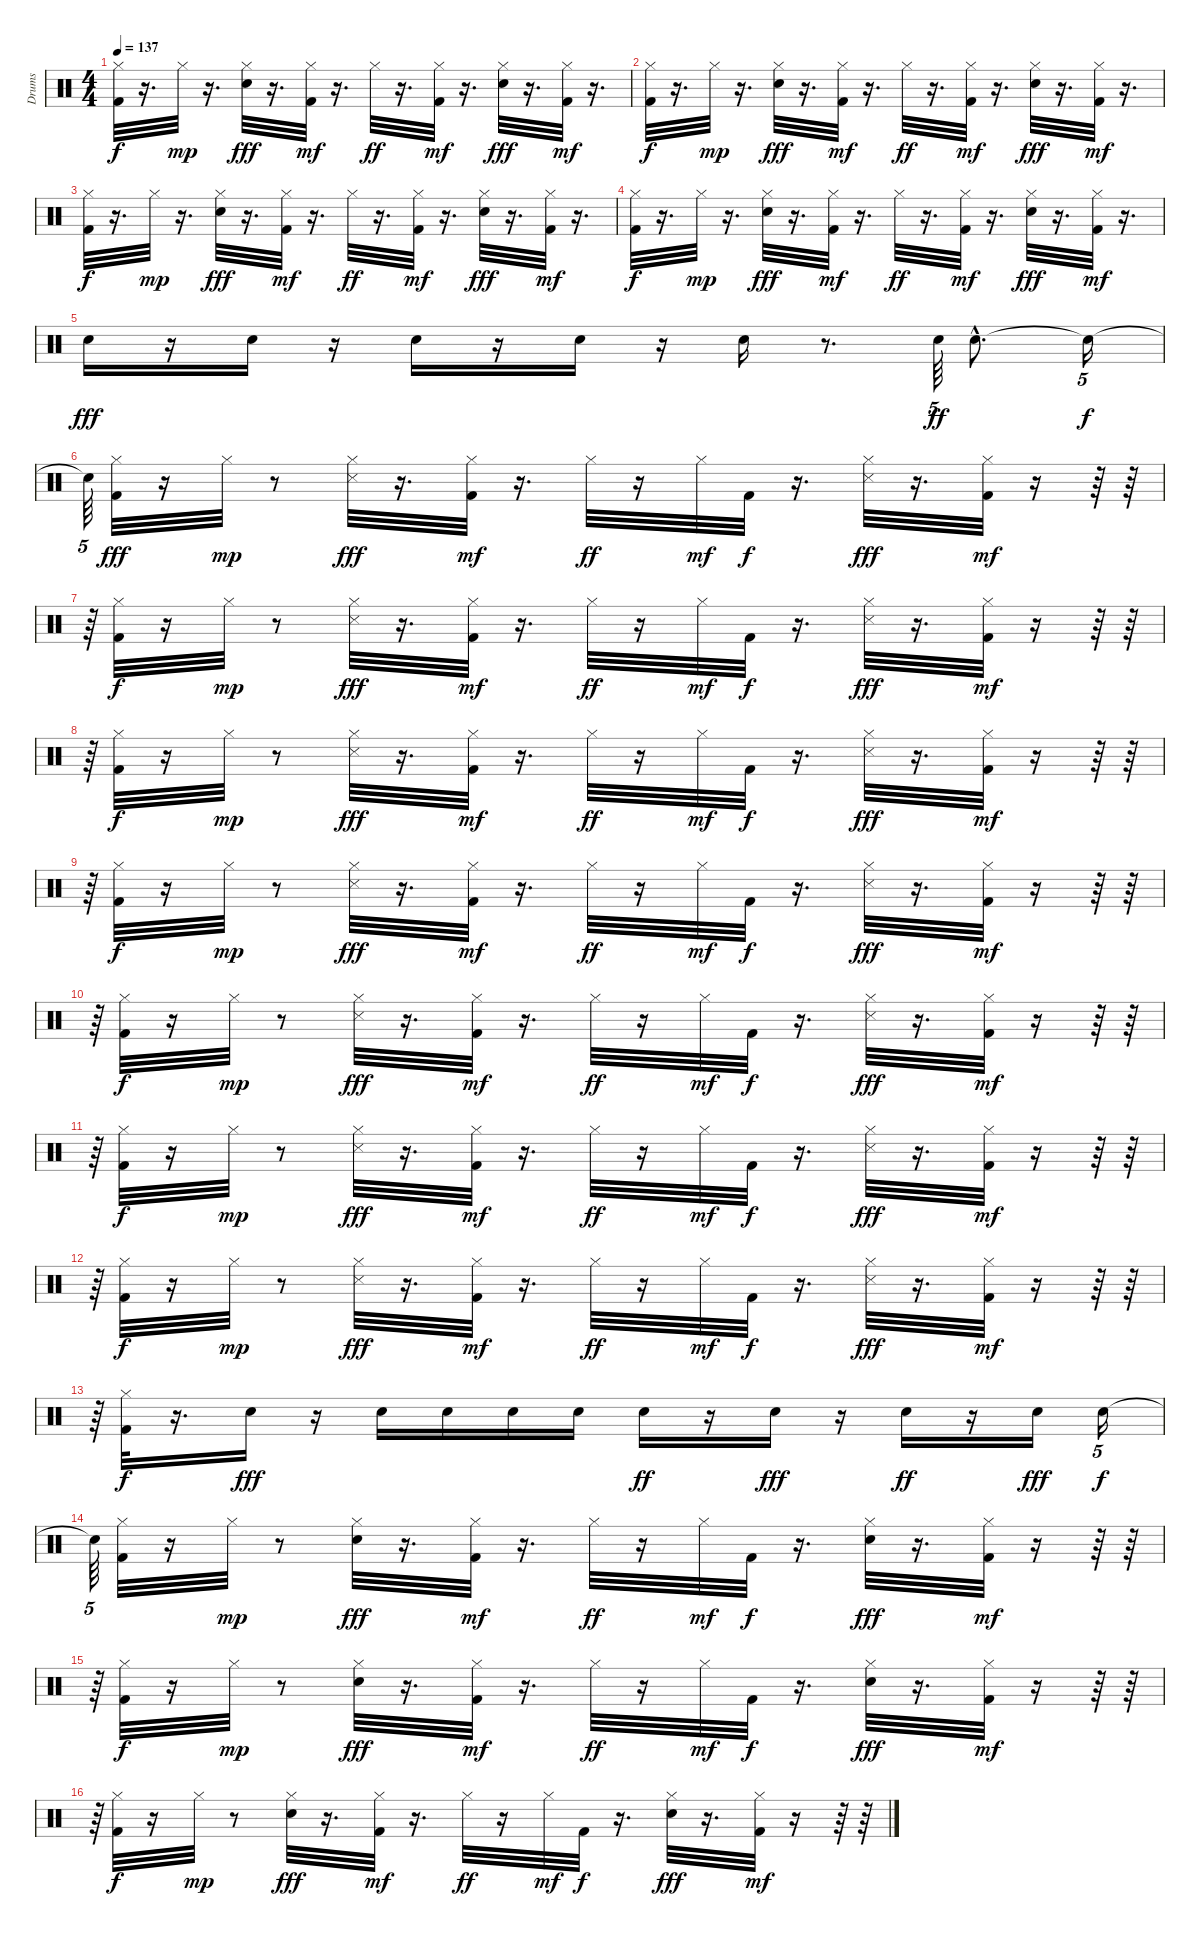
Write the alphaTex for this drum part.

\track ("Drums" "Drums") {instrument percussion}
\staff {score}
\articulation defaults
\ts (4 4)
\tempo 137
\clef neutral
\ks c
("Hi-Hat (closed)" "Kick (hit) 2").32{dy f} r.16{d} "Hi-Hat (closed)".32{dy mp} r.16{d} ("Hi-Hat (closed)" "Snare (hit) 2").32{dy fff} r.16{d} ("Hi-Hat (closed)" "Kick (hit) 2").32{dy mf} r.16{d} "Hi-Hat (closed)".32{dy ff} r.16{d} ("Hi-Hat (closed)" "Kick (hit) 2").32{dy mf} r.16{d} ("Hi-Hat (closed)" "Snare (hit) 2").32{dy fff} r.16{d} ("Hi-Hat (closed)" "Kick (hit) 2").32{dy mf} r.16{d} |
("Hi-Hat (closed)" "Kick (hit) 2").32{dy f} r.16{d} "Hi-Hat (closed)".32{dy mp} r.16{d} ("Hi-Hat (closed)" "Snare (hit) 2").32{dy fff} r.16{d} ("Hi-Hat (closed)" "Kick (hit) 2").32{dy mf} r.16{d} "Hi-Hat (closed)".32{dy ff} r.16{d} ("Hi-Hat (closed)" "Kick (hit) 2").32{dy mf} r.16{d} ("Hi-Hat (closed)" "Snare (hit) 2").32{dy fff} r.16{d} ("Hi-Hat (closed)" "Kick (hit) 2").32{dy mf} r.16{d} |
("Hi-Hat (closed)" "Kick (hit) 2").32{dy f} r.16{d} "Hi-Hat (closed)".32{dy mp} r.16{d} ("Hi-Hat (closed)" "Snare (hit) 2").32{dy fff} r.16{d} ("Hi-Hat (closed)" "Kick (hit) 2").32{dy mf} r.16{d} "Hi-Hat (closed)".32{dy ff} r.16{d} ("Hi-Hat (closed)" "Kick (hit) 2").32{dy mf} r.16{d} ("Hi-Hat (closed)" "Snare (hit) 2").32{dy fff} r.16{d} ("Hi-Hat (closed)" "Kick (hit) 2").32{dy mf} r.16{d} |
("Hi-Hat (closed)" "Kick (hit) 2").32{dy f} r.16{d} "Hi-Hat (closed)".32{dy mp} r.16{d} ("Hi-Hat (closed)" "Snare (hit) 2").32{dy fff} r.16{d} ("Hi-Hat (closed)" "Kick (hit) 2").32{dy mf} r.16{d} "Hi-Hat (closed)".32{dy ff} r.16{d} ("Hi-Hat (closed)" "Kick (hit) 2").32{dy mf} r.16{d} ("Hi-Hat (closed)" "Snare (hit) 2").32{dy fff} r.16{d} ("Hi-Hat (closed)" "Kick (hit) 2").32{dy mf} r.16{d} |
"Snare (hit) 2".16{dy fff} r.16 "Snare (hit) 2".16 r.16 "Snare (hit) 2".16 r.16 "Snare (hit) 2".16 r.16 "Snare (hit) 2".16 r.8{d} "Snare (hit) 2".64{tu (5 4) dy ff} "Electric Snare (hit)"{hac}.8{d} "Snare (hit)"{t}.16{tu (5 4) dy f} |
"Snare (hit)"{t}.64{tu (5 4)} ("Hi-Hat (closed)" "Kick (hit) 2").32{dy fff} r.16 "Hi-Hat (closed)".32{dy mp} r.8 ("Hi-Hat (closed)" "Snare (side stick) 3").32{dy fff} r.16{d} ("Hi-Hat (closed)" "Kick (hit) 2").32{dy mf} r.16{d} "Hi-Hat (closed)".32{dy ff} r.16 "Hi-Hat (closed)".32{dy mf} "Kick (hit) 2".32{dy f} r.16{d} ("Hi-Hat (closed)" "Snare (side stick) 3").32{dy fff} r.16{d} ("Hi-Hat (closed)" "Kick (hit) 2").32{dy mf} r.16 r.64 r.64 |
r.64{tu (5 4)} ("Hi-Hat (closed)" "Kick (hit) 2").32{dy f} r.16 "Hi-Hat (closed)".32{dy mp} r.8 ("Hi-Hat (closed)" "Snare (side stick) 3").32{dy fff} r.16{d} ("Hi-Hat (closed)" "Kick (hit) 2").32{dy mf} r.16{d} "Hi-Hat (closed)".32{dy ff} r.16 "Hi-Hat (closed)".32{dy mf} "Kick (hit) 2".32{dy f} r.16{d} ("Hi-Hat (closed)" "Snare (side stick) 3").32{dy fff} r.16{d} ("Hi-Hat (closed)" "Kick (hit) 2").32{dy mf} r.16 r.64 r.64 |
r.64{tu (5 4)} ("Hi-Hat (closed)" "Kick (hit) 2").32{dy f} r.16 "Hi-Hat (closed)".32{dy mp} r.8 ("Hi-Hat (closed)" "Snare (side stick) 3").32{dy fff} r.16{d} ("Hi-Hat (closed)" "Kick (hit) 2").32{dy mf} r.16{d} "Hi-Hat (closed)".32{dy ff} r.16 "Hi-Hat (closed)".32{dy mf} "Kick (hit) 2".32{dy f} r.16{d} ("Hi-Hat (closed)" "Snare (side stick) 3").32{dy fff} r.16{d} ("Hi-Hat (closed)" "Kick (hit) 2").32{dy mf} r.16 r.64 r.64 |
r.64{tu (5 4)} ("Hi-Hat (closed)" "Kick (hit) 2").32{dy f} r.16 "Hi-Hat (closed)".32{dy mp} r.8 ("Hi-Hat (closed)" "Snare (side stick) 3").32{dy fff} r.16{d} ("Hi-Hat (closed)" "Kick (hit) 2").32{dy mf} r.16{d} "Hi-Hat (closed)".32{dy ff} r.16 "Hi-Hat (closed)".32{dy mf} "Kick (hit) 2".32{dy f} r.16{d} ("Hi-Hat (closed)" "Snare (side stick) 3").32{dy fff} r.16{d} ("Hi-Hat (closed)" "Kick (hit) 2").32{dy mf} r.16 r.64 r.64 |
r.64{tu (5 4)} ("Hi-Hat (closed)" "Kick (hit) 2").32{dy f} r.16 "Hi-Hat (closed)".32{dy mp} r.8 ("Hi-Hat (closed)" "Snare (side stick) 3").32{dy fff} r.16{d} ("Hi-Hat (closed)" "Kick (hit) 2").32{dy mf} r.16{d} "Hi-Hat (closed)".32{dy ff} r.16 "Hi-Hat (closed)".32{dy mf} "Kick (hit) 2".32{dy f} r.16{d} ("Hi-Hat (closed)" "Snare (side stick) 3").32{dy fff} r.16{d} ("Hi-Hat (closed)" "Kick (hit) 2").32{dy mf} r.16 r.64 r.64 |
r.64{tu (5 4)} ("Hi-Hat (closed)" "Kick (hit) 2").32{dy f} r.16 "Hi-Hat (closed)".32{dy mp} r.8 ("Hi-Hat (closed)" "Snare (side stick) 3").32{dy fff} r.16{d} ("Hi-Hat (closed)" "Kick (hit) 2").32{dy mf} r.16{d} "Hi-Hat (closed)".32{dy ff} r.16 "Hi-Hat (closed)".32{dy mf} "Kick (hit) 2".32{dy f} r.16{d} ("Hi-Hat (closed)" "Snare (side stick) 3").32{dy fff} r.16{d} ("Hi-Hat (closed)" "Kick (hit) 2").32{dy mf} r.16 r.64 r.64 |
r.64{tu (5 4)} ("Hi-Hat (closed)" "Kick (hit) 2").32{dy f} r.16 "Hi-Hat (closed)".32{dy mp} r.8 ("Hi-Hat (closed)" "Snare (side stick) 3").32{dy fff} r.16{d} ("Hi-Hat (closed)" "Kick (hit) 2").32{dy mf} r.16{d} "Hi-Hat (closed)".32{dy ff} r.16 "Hi-Hat (closed)".32{dy mf} "Kick (hit) 2".32{dy f} r.16{d} ("Hi-Hat (closed)" "Snare (side stick) 3").32{dy fff} r.16{d} ("Hi-Hat (closed)" "Kick (hit) 2").32{dy mf} r.16 r.64 r.64 |
r.64{tu (5 4)} ("Hi-Hat (closed)" "Kick (hit) 2").32{dy f} r.16{d} "Snare (hit) 2".16{dy fff} r.16 "Snare (hit) 2".16 "Snare (hit) 2".16 "Snare (hit) 2".16 "Snare (hit) 2".16 "Electric Snare (hit)".16{dy ff} r.16 "Electric Snare (hit)".16{dy fff} r.16 "Snare (hit) 2".16{dy ff} r.16 "Snare (hit) 2".16{dy fff} "Electric Snare (hit)".16{tu (5 4) dy f} |
"Snare (hit)"{t}.64{tu (5 4)} ("Hi-Hat (closed)" "Kick (hit) 2").32 r.16 "Hi-Hat (closed)".32{dy mp} r.8 ("Hi-Hat (closed)" "Snare (hit) 2").32{dy fff} r.16{d} ("Hi-Hat (closed)" "Kick (hit) 2").32{dy mf} r.16{d} "Hi-Hat (closed)".32{dy ff} r.16 "Hi-Hat (closed)".32{dy mf} "Kick (hit) 2".32{dy f} r.16{d} ("Hi-Hat (closed)" "Snare (hit) 2").32{dy fff} r.16{d} ("Hi-Hat (closed)" "Kick (hit) 2").32{dy mf} r.16 r.64 r.64 |
r.64{tu (5 4)} ("Hi-Hat (closed)" "Kick (hit) 2").32{dy f} r.16 "Hi-Hat (closed)".32{dy mp} r.8 ("Hi-Hat (closed)" "Snare (hit) 2").32{dy fff} r.16{d} ("Hi-Hat (closed)" "Kick (hit) 2").32{dy mf} r.16{d} "Hi-Hat (closed)".32{dy ff} r.16 "Hi-Hat (closed)".32{dy mf} "Kick (hit) 2".32{dy f} r.16{d} ("Hi-Hat (closed)" "Snare (hit) 2").32{dy fff} r.16{d} ("Hi-Hat (closed)" "Kick (hit) 2").32{dy mf} r.16 r.64 r.64 |
r.64{tu (5 4)} ("Hi-Hat (closed)" "Kick (hit) 2").32{dy f} r.16 "Hi-Hat (closed)".32{dy mp} r.8 ("Hi-Hat (closed)" "Snare (hit) 2").32{dy fff} r.16{d} ("Hi-Hat (closed)" "Kick (hit) 2").32{dy mf} r.16{d} "Hi-Hat (closed)".32{dy ff} r.16 "Hi-Hat (closed)".32{dy mf} "Kick (hit) 2".32{dy f} r.16{d} ("Hi-Hat (closed)" "Snare (hit) 2").32{dy fff} r.16{d} ("Hi-Hat (closed)" "Kick (hit) 2").32{dy mf} r.16 r.64 r.64
